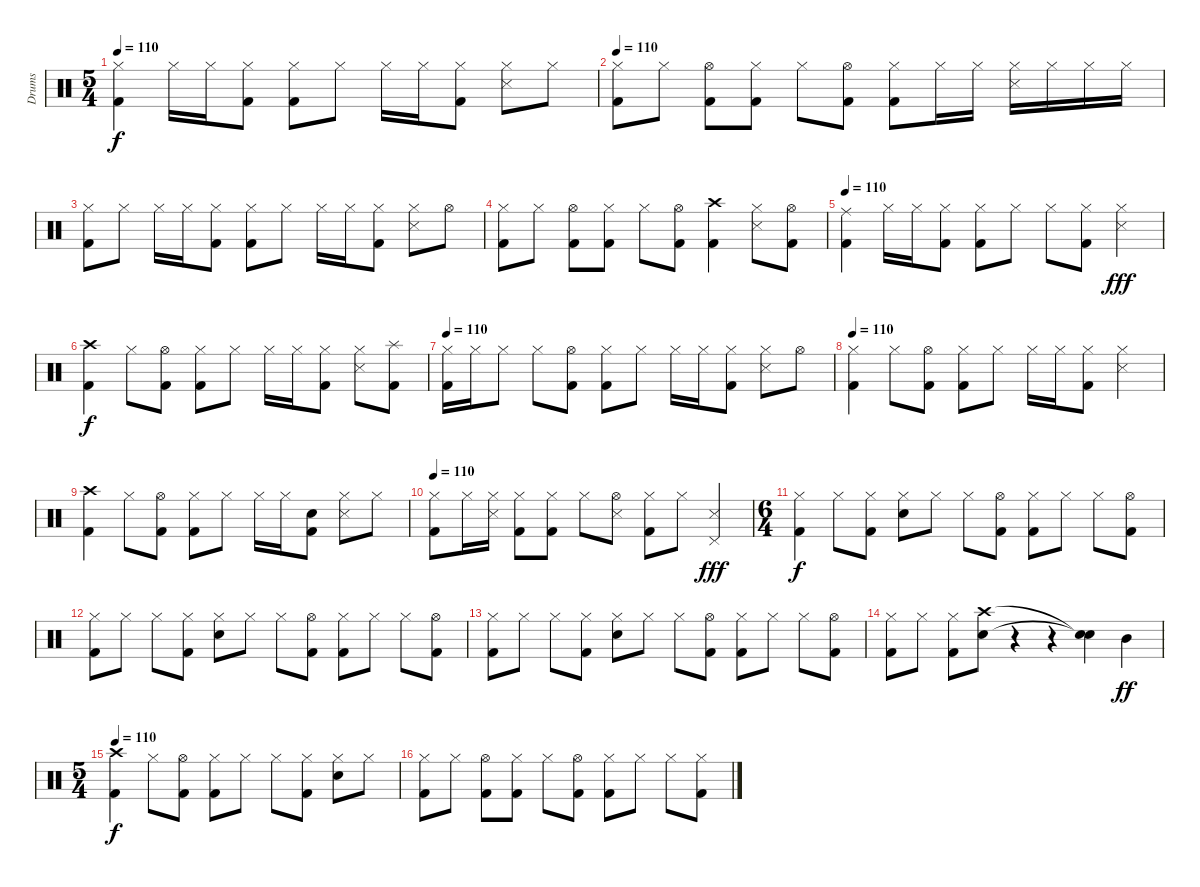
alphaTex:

\track ("Drums" "Drums") {instrument percussion}
\staff {score}
\articulation defaults
\ts (5 4)
\tempo 110
\clef neutral
\ks c
("Hi-Hat (closed)" "Kick (hit) 2").4{dy f} "Hi-Hat (closed)".16 "Hi-Hat (closed)".16 ("Hi-Hat (closed)" "Kick (hit) 2").8 ("Hi-Hat (closed)" "Kick (hit) 2").8 "Hi-Hat (closed)".8 "Hi-Hat (closed)".16 "Hi-Hat (closed)".16 ("Hi-Hat (closed)" "Kick (hit) 2").8 ("Hi-Hat (closed)" "Snare (side stick) 3").8 "Hi-Hat (closed)".8 |
\tempo 110
("Hi-Hat (closed)" "Kick (hit) 2").8 "Hi-Hat (closed)".8 ("Hi-Hat (open)" "Kick (hit) 2").8 ("Hi-Hat (closed)" "Kick (hit) 2").8 "Hi-Hat (closed)".8 ("Hi-Hat (open)" "Kick (hit) 2").8 ("Hi-Hat (closed)" "Kick (hit) 2").8 "Hi-Hat (closed)".16 "Hi-Hat (closed)".16 ("Hi-Hat (closed)" "Snare (side stick) 3").16 "Hi-Hat (closed)".16 "Hi-Hat (closed)".16 "Hi-Hat (closed)".16 |
("Hi-Hat (closed)" "Kick (hit) 2").8 "Hi-Hat (closed)".8 "Hi-Hat (closed)".16 "Hi-Hat (closed)".16 ("Hi-Hat (closed)" "Kick (hit) 2").8 ("Hi-Hat (closed)" "Kick (hit) 2").8 "Hi-Hat (closed)".8 "Hi-Hat (closed)".16 "Hi-Hat (closed)".16 ("Hi-Hat (closed)" "Kick (hit) 2").8 ("Hi-Hat (closed)" "Snare (side stick) 3").8 "Hi-Hat (open)".8 |
("Hi-Hat (closed)" "Kick (hit) 2").8 "Hi-Hat (closed)".8 ("Hi-Hat (open)" "Kick (hit) 2").8 ("Hi-Hat (closed)" "Kick (hit) 2").8 "Hi-Hat (closed)".8 ("Hi-Hat (open)" "Kick (hit) 2").8 ("Crash high (hit)" "Kick (hit) 2").4 ("Hi-Hat (closed)" "Snare (side stick) 3").8 ("Hi-Hat (open)" "Kick (hit) 2").8 |
\tempo 110
("Ride (middle)" "Kick (hit) 2").4 "Hi-Hat (closed)".16 "Hi-Hat (closed)".16 ("Hi-Hat (closed)" "Kick (hit) 2").8 ("Hi-Hat (closed)" "Kick (hit) 2").8 "Hi-Hat (closed)".8 "Hi-Hat (closed)".8 ("Hi-Hat (closed)" "Kick (hit) 2").8 ("Hi-Hat (closed)" "Snare (side stick) 3").4{dy fff} |
("Crash high (hit)" "Kick (hit) 2").4{dy f} "Hi-Hat (closed)".8 ("Hi-Hat (open)" "Kick (hit) 2").8 ("Hi-Hat (closed)" "Kick (hit) 2").8 "Hi-Hat (closed)".8 "Hi-Hat (closed)".16 "Hi-Hat (closed)".16 ("Hi-Hat (closed)" "Kick (hit) 2").8 ("Hi-Hat (closed)" "Snare (side stick) 3").8 ("Splash (hit)" "Kick (hit) 2").8 |
\tempo 110
("Hi-Hat (closed)" "Kick (hit) 2").16 "Hi-Hat (closed)".16 "Hi-Hat (closed)".8 "Hi-Hat (closed)".8 ("Hi-Hat (open)" "Kick (hit) 2").8 ("Hi-Hat (closed)" "Kick (hit) 2").8 "Hi-Hat (closed)".8 "Hi-Hat (closed)".16 "Hi-Hat (closed)".16 ("Hi-Hat (closed)" "Kick (hit) 2").8 ("Hi-Hat (closed)" "Snare (side stick) 3").8 "Hi-Hat (open)".8 |
\tempo 110
("Hi-Hat (closed)" "Kick (hit) 2").4 "Hi-Hat (closed)".8 ("Hi-Hat (open)" "Kick (hit) 2").8 ("Hi-Hat (closed)" "Kick (hit) 2").8 "Hi-Hat (closed)".8 "Hi-Hat (closed)".16 "Hi-Hat (closed)".16 ("Hi-Hat (closed)" "Kick (hit) 2").8 ("Hi-Hat (closed)" "Snare (side stick) 3").4 |
("Crash high (hit)" "Kick (hit) 2").4 "Hi-Hat (closed)".8 ("Hi-Hat (open)" "Kick (hit) 2").8 ("Hi-Hat (closed)" "Kick (hit) 2").8 "Hi-Hat (closed)".8 "Hi-Hat (closed)".16 "Hi-Hat (closed)".16 ("Snare (hit)" "Kick (hit) 2").8 ("Hi-Hat (closed)" "Snare (side stick) 3").8 "Hi-Hat (closed)".8 |
\tempo 110
("Hi-Hat (closed)" "Kick (hit) 2").8 "Hi-Hat (closed)".16 ("Hi-Hat (closed)" "Snare (side stick) 3").16 ("Hi-Hat (closed)" "Kick (hit) 2").8 ("Hi-Hat (closed)" "Kick (hit) 2").8 "Hi-Hat (closed)".8 ("Hi-Hat (open)" "Snare (side stick) 3").8 ("Hi-Hat (closed)" "Kick (hit) 2").8 "Hi-Hat (closed)".8 ("Pedal Hi-Hat (hit)" "Snare (side stick) 3").4{dy fff} |
\ts (6 4)
("Hi-Hat (closed)" "Kick (hit) 2").4{dy f} "Hi-Hat (closed)".8 ("Hi-Hat (closed)" "Kick (hit) 2").8 ("Hi-Hat (closed)" "Snare (hit) 2").8 "Hi-Hat (closed)".8 "Hi-Hat (closed)".8 ("Hi-Hat (open)" "Kick (hit) 2").8 ("Hi-Hat (closed)" "Kick (hit) 2").8 "Hi-Hat (closed)".8 "Hi-Hat (closed)".8 ("Hi-Hat (open)" "Kick (hit) 2").8 |
("Hi-Hat (closed)" "Kick (hit) 2").8 "Hi-Hat (closed)".8 "Hi-Hat (closed)".8 ("Hi-Hat (closed)" "Kick (hit) 2").8 ("Hi-Hat (closed)" "Snare (hit) 2").8 "Hi-Hat (closed)".8 "Hi-Hat (closed)".8 ("Hi-Hat (open)" "Kick (hit) 2").8 ("Hi-Hat (closed)" "Kick (hit) 2").8 "Hi-Hat (closed)".8 "Hi-Hat (closed)".8 ("Hi-Hat (open)" "Kick (hit) 2").8 |
("Hi-Hat (closed)" "Kick (hit) 2").8 "Hi-Hat (closed)".8 "Hi-Hat (closed)".8 ("Hi-Hat (closed)" "Kick (hit) 2").8 ("Hi-Hat (closed)" "Snare (hit) 2").8 "Hi-Hat (closed)".8 "Hi-Hat (closed)".8 ("Hi-Hat (open)" "Kick (hit) 2").8 ("Hi-Hat (closed)" "Kick (hit) 2").8 "Hi-Hat (closed)".8 "Hi-Hat (closed)".8 ("Hi-Hat (open)" "Kick (hit) 2").8 |
("Hi-Hat (closed)" "Kick (hit) 2").8 "Hi-Hat (closed)".8 ("Hi-Hat (closed)" "Kick (hit) 2").8 ("Crash high (hit)" "Snare (hit) 2").8 r.4 r.4 ("Snare (hit)"{t} "Snare (hit)"{t}).4 "Mid Tom (hit)".4{dy ff} |
\ts (5 4)
\tempo 110
("Crash high (hit)" "Kick (hit) 2").4{dy f} "Hi-Hat (closed)".8 ("Hi-Hat (open)" "Kick (hit) 2").8 ("Hi-Hat (closed)" "Kick (hit) 2").8 "Hi-Hat (closed)".8 "Hi-Hat (closed)".8 ("Hi-Hat (closed)" "Kick (hit) 2").8 ("Hi-Hat (closed)" "Snare (hit) 2").8 "Hi-Hat (closed)".8 |
("Hi-Hat (closed)" "Kick (hit) 2").8 "Hi-Hat (closed)".8 ("Hi-Hat (open)" "Kick (hit) 2").8 ("Hi-Hat (closed)" "Kick (hit) 2").8 "Hi-Hat (closed)".8 ("Hi-Hat (open)" "Kick (hit) 2").8 ("Hi-Hat (closed)" "Kick (hit) 2").8 "Hi-Hat (closed)".8 "Hi-Hat (closed)".8 ("Hi-Hat (closed)" "Kick (hit) 2").8
